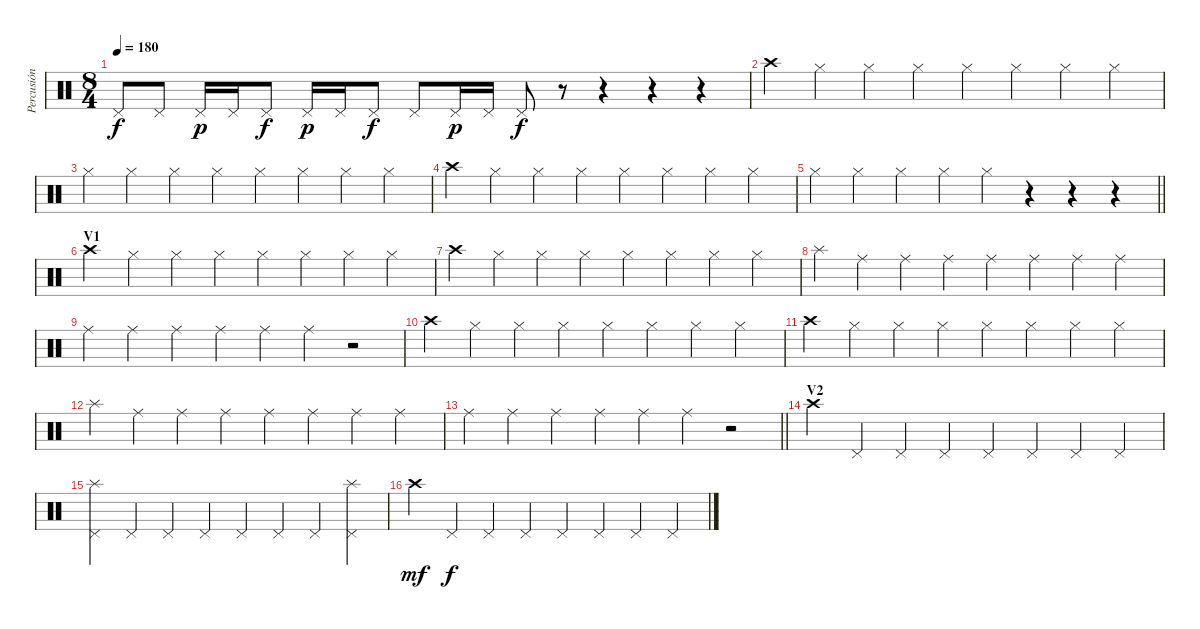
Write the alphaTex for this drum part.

\track ("Percusión" "Percusión") {instrument percussion}
\staff {score}
\articulation defaults
\ts (8 4)
\tempo 180
\clef neutral
\ks c "Pedal Hi-Hat (hit)".8{dy f} "Pedal Hi-Hat (hit)".8 "Pedal Hi-Hat (hit)".16{dy p} "Pedal Hi-Hat (hit)".16 "Pedal Hi-Hat (hit)".8{dy f} "Pedal Hi-Hat (hit)".16{dy p} "Pedal Hi-Hat (hit)".16 "Pedal Hi-Hat (hit)".8{dy f} "Pedal Hi-Hat (hit)".8 "Pedal Hi-Hat (hit)".16{dy p} "Pedal Hi-Hat (hit)".16 "Pedal Hi-Hat (hit)".8{dy f}
r.8 r.4 r.4 r.4 |
"Crash high (hit)".4 "Hi-Hat (closed)".4 "Hi-Hat (closed)".4 "Hi-Hat (closed)".4 "Hi-Hat (closed)".4 "Hi-Hat (closed)".4 "Hi-Hat (closed)".4 "Hi-Hat (closed)".4 |
"Hi-Hat (closed)".4 "Hi-Hat (closed)".4 "Hi-Hat (closed)".4 "Hi-Hat (closed)".4 "Hi-Hat (closed)".4 "Hi-Hat (closed)".4 "Hi-Hat (closed)".4 "Hi-Hat (closed)".4 |
"Crash high (hit)".4 "Hi-Hat (closed)".4 "Hi-Hat (closed)".4 "Hi-Hat (closed)".4 "Hi-Hat (closed)".4 "Hi-Hat (closed)".4 "Hi-Hat (closed)".4 "Hi-Hat (closed)".4 |
\barLineRight lightlight "Hi-Hat (closed)".4 "Hi-Hat (closed)".4 "Hi-Hat (closed)".4 "Hi-Hat (closed)".4 "Hi-Hat (closed)".4
r.4 r.4 r.4 |
\section ("" "V1")
"Crash high (hit)".4 "Hi-Hat (closed)".4 "Hi-Hat (closed)".4 "Hi-Hat (closed)".4 "Hi-Hat (closed)".4 "Hi-Hat (closed)".4 "Hi-Hat (closed)".4 "Hi-Hat (closed)".4 |
"Crash high (hit)".4 "Hi-Hat (closed)".4 "Hi-Hat (closed)".4 "Hi-Hat (closed)".4 "Hi-Hat (closed)".4 "Hi-Hat (closed)".4 "Hi-Hat (closed)".4 "Hi-Hat (closed)".4 |
"Splash (hit)".4 "Ride (middle)".4 "Ride (middle)".4 "Ride (middle)".4 "Ride (middle)".4 "Ride (middle)".4 "Ride (middle)".4 "Ride (middle)".4 |
"Ride (middle)".4 "Ride (middle)".4 "Ride (middle)".4 "Ride (middle)".4 "Ride (middle)".4 "Ride (middle)".4 r.2 |
"Crash high (hit)".4 "Hi-Hat (closed)".4 "Hi-Hat (closed)".4 "Hi-Hat (closed)".4 "Hi-Hat (closed)".4 "Hi-Hat (closed)".4 "Hi-Hat (closed)".4 "Hi-Hat (closed)".4 |
"Crash high (hit)".4 "Hi-Hat (closed)".4 "Hi-Hat (closed)".4 "Hi-Hat (closed)".4 "Hi-Hat (closed)".4 "Hi-Hat (closed)".4 "Hi-Hat (closed)".4 "Hi-Hat (closed)".4 |
"Splash (hit)".4 "Ride (middle)".4 "Ride (middle)".4 "Ride (middle)".4 "Ride (middle)".4 "Ride (middle)".4 "Ride (middle)".4 "Ride (middle)".4 |
\barLineRight lightlight "Ride (middle)".4 "Ride (middle)".4 "Ride (middle)".4 "Ride (middle)".4 "Ride (middle)".4 "Ride (middle)".4
r.2 |
\section ("" "V2")
"Crash high (hit)".4 "Pedal Hi-Hat (hit)".4 "Pedal Hi-Hat (hit)".4 "Pedal Hi-Hat (hit)".4 "Pedal Hi-Hat (hit)".4 "Pedal Hi-Hat (hit)".4 "Pedal Hi-Hat (hit)".4 "Pedal Hi-Hat (hit)".4 |
("Splash (hit)" "Pedal Hi-Hat (hit)").4 "Pedal Hi-Hat (hit)".4 "Pedal Hi-Hat (hit)".4 "Pedal Hi-Hat (hit)".4 "Pedal Hi-Hat (hit)".4 "Pedal Hi-Hat (hit)".4 "Pedal Hi-Hat (hit)".4 ("Pedal Hi-Hat (hit)" "Splash (hit)").4 |
"Crash high (hit)".4{dy mf} "Pedal Hi-Hat (hit)".4{dy f} "Pedal Hi-Hat (hit)".4 "Pedal Hi-Hat (hit)".4 "Pedal Hi-Hat (hit)".4 "Pedal Hi-Hat (hit)".4 "Pedal Hi-Hat (hit)".4 "Pedal Hi-Hat (hit)".4
